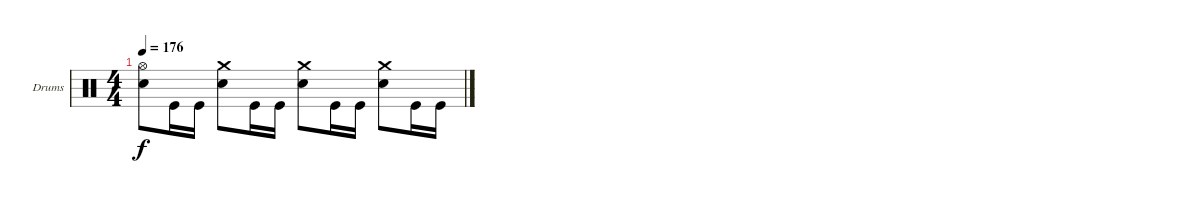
\bracketExtendMode groupsimilarinstruments
\firstSystemTrackNameOrientation horizontal
\otherSystemsTrackNameOrientation horizontal
\track ("Drums" "Drums") {instrument percussion}
\staff {score}
\articulation defaults
\ts (4 4)
\tempo 176
\clef neutral
\ks c
("Snare (hit) 2" "Hi-Hat (open)").8{dy f} "Kick (hit)".16 "Kick (hit)".16 ("Snare (hit) 2" "Crash medium (hit)").8 "Kick (hit)".16 "Kick (hit)".16 ("Snare (hit) 2" "Crash medium (hit)").8 "Kick (hit)".16 "Kick (hit)".16 ("Snare (hit) 2" "Crash medium (hit)").8 "Kick (hit)".16 "Kick (hit)".16
